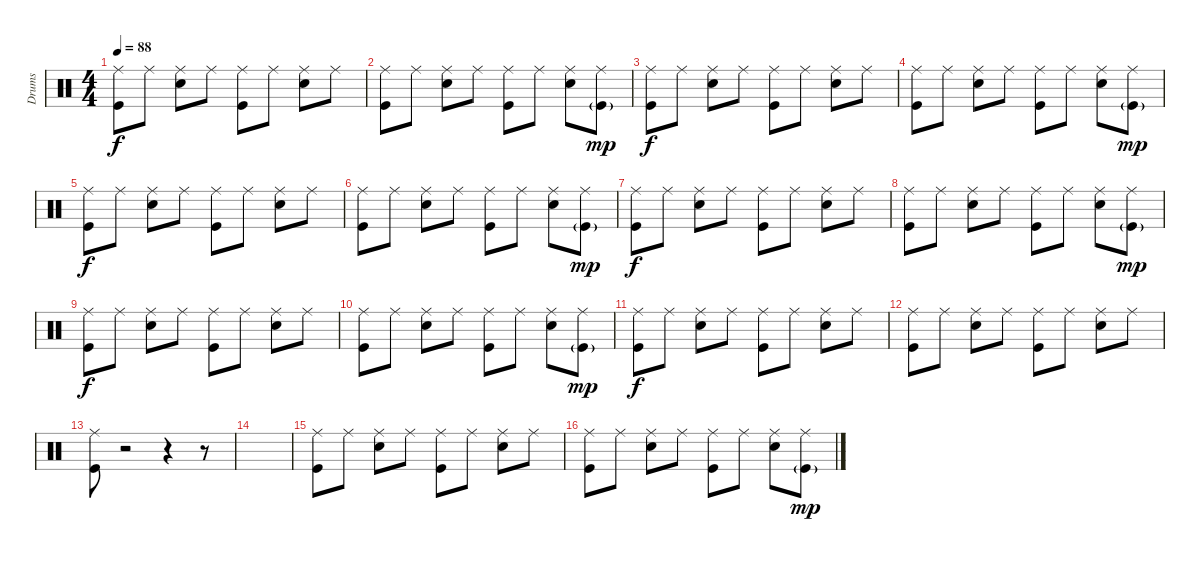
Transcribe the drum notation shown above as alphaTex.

\track ("Drums" "Drums") {instrument percussion}
\staff {score}
\articulation defaults
\ts (4 4)
\tempo 88
\clef neutral
\ks c
("Ride (middle)" "Kick (hit)").8{dy f} "Ride (middle)".8 ("Ride (middle)" "Snare (hit) 2").8 "Ride (middle)".8 ("Ride (middle)" "Kick (hit)").8 "Ride (middle)".8 ("Ride (middle)" "Snare (hit) 2").8 "Ride (middle)".8 |
("Ride (middle)" "Kick (hit)").8 "Ride (middle)".8 ("Ride (middle)" "Snare (hit) 2").8 "Ride (middle)".8 ("Ride (middle)" "Kick (hit)").8 "Ride (middle)".8 ("Ride (middle)" "Snare (hit) 2").8 ("Ride (middle)" "Kick (hit)"{g}).8{dy mp} |
("Ride (middle)" "Kick (hit)").8{dy f} "Ride (middle)".8 ("Ride (middle)" "Snare (hit) 2").8 "Ride (middle)".8 ("Ride (middle)" "Kick (hit)").8 "Ride (middle)".8 ("Ride (middle)" "Snare (hit) 2").8 "Ride (middle)".8 |
("Ride (middle)" "Kick (hit)").8 "Ride (middle)".8 ("Ride (middle)" "Snare (hit) 2").8 "Ride (middle)".8 ("Ride (middle)" "Kick (hit)").8 "Ride (middle)".8 ("Ride (middle)" "Snare (hit) 2").8 ("Ride (middle)" "Kick (hit)"{g}).8{dy mp} |
("Ride (middle)" "Kick (hit)").8{dy f} "Ride (middle)".8 ("Ride (middle)" "Snare (hit) 2").8 "Ride (middle)".8 ("Ride (middle)" "Kick (hit)").8 "Ride (middle)".8 ("Ride (middle)" "Snare (hit) 2").8 "Ride (middle)".8 |
("Ride (middle)" "Kick (hit)").8 "Ride (middle)".8 ("Ride (middle)" "Snare (hit) 2").8 "Ride (middle)".8 ("Ride (middle)" "Kick (hit)").8 "Ride (middle)".8 ("Ride (middle)" "Snare (hit) 2").8 ("Ride (middle)" "Kick (hit)"{g}).8{dy mp} |
("Ride (middle)" "Kick (hit)").8{dy f} "Ride (middle)".8 ("Ride (middle)" "Snare (hit) 2").8 "Ride (middle)".8 ("Ride (middle)" "Kick (hit)").8 "Ride (middle)".8 ("Ride (middle)" "Snare (hit) 2").8 "Ride (middle)".8 |
("Ride (middle)" "Kick (hit)").8 "Ride (middle)".8 ("Ride (middle)" "Snare (hit) 2").8 "Ride (middle)".8 ("Ride (middle)" "Kick (hit)").8 "Ride (middle)".8 ("Ride (middle)" "Snare (hit) 2").8 ("Ride (middle)" "Kick (hit)"{g}).8{dy mp} |
("Ride (middle)" "Kick (hit)").8{dy f} "Ride (middle)".8 ("Ride (middle)" "Snare (hit) 2").8 "Ride (middle)".8 ("Ride (middle)" "Kick (hit)").8 "Ride (middle)".8 ("Ride (middle)" "Snare (hit) 2").8 "Ride (middle)".8 |
("Ride (middle)" "Kick (hit)").8 "Ride (middle)".8 ("Ride (middle)" "Snare (hit) 2").8 "Ride (middle)".8 ("Ride (middle)" "Kick (hit)").8 "Ride (middle)".8 ("Ride (middle)" "Snare (hit) 2").8 ("Ride (middle)" "Kick (hit)"{g}).8{dy mp} |
("Ride (middle)" "Kick (hit)").8{dy f} "Ride (middle)".8 ("Ride (middle)" "Snare (hit) 2").8 "Ride (middle)".8 ("Ride (middle)" "Kick (hit)").8 "Ride (middle)".8 ("Ride (middle)" "Snare (hit) 2").8 "Ride (middle)".8 |
("Ride (middle)" "Kick (hit)").8 "Ride (middle)".8 ("Ride (middle)" "Snare (hit) 2").8 "Ride (middle)".8 ("Ride (middle)" "Kick (hit)").8 "Ride (middle)".8 ("Ride (middle)" "Snare (hit) 2").8 "Ride (middle)".8 |
("Ride (middle)" "Kick (hit)").8 r.2 r.4 r.8 |
|
("Ride (middle)" "Kick (hit)").8 "Ride (middle)".8 ("Ride (middle)" "Snare (hit) 2").8 "Ride (middle)".8 ("Ride (middle)" "Kick (hit)").8 "Ride (middle)".8 ("Ride (middle)" "Snare (hit) 2").8 "Ride (middle)".8 |
("Ride (middle)" "Kick (hit)").8 "Ride (middle)".8 ("Ride (middle)" "Snare (hit) 2").8 "Ride (middle)".8 ("Ride (middle)" "Kick (hit)").8 "Ride (middle)".8 ("Ride (middle)" "Snare (hit) 2").8 ("Ride (middle)" "Kick (hit)"{g}).8{dy mp}
